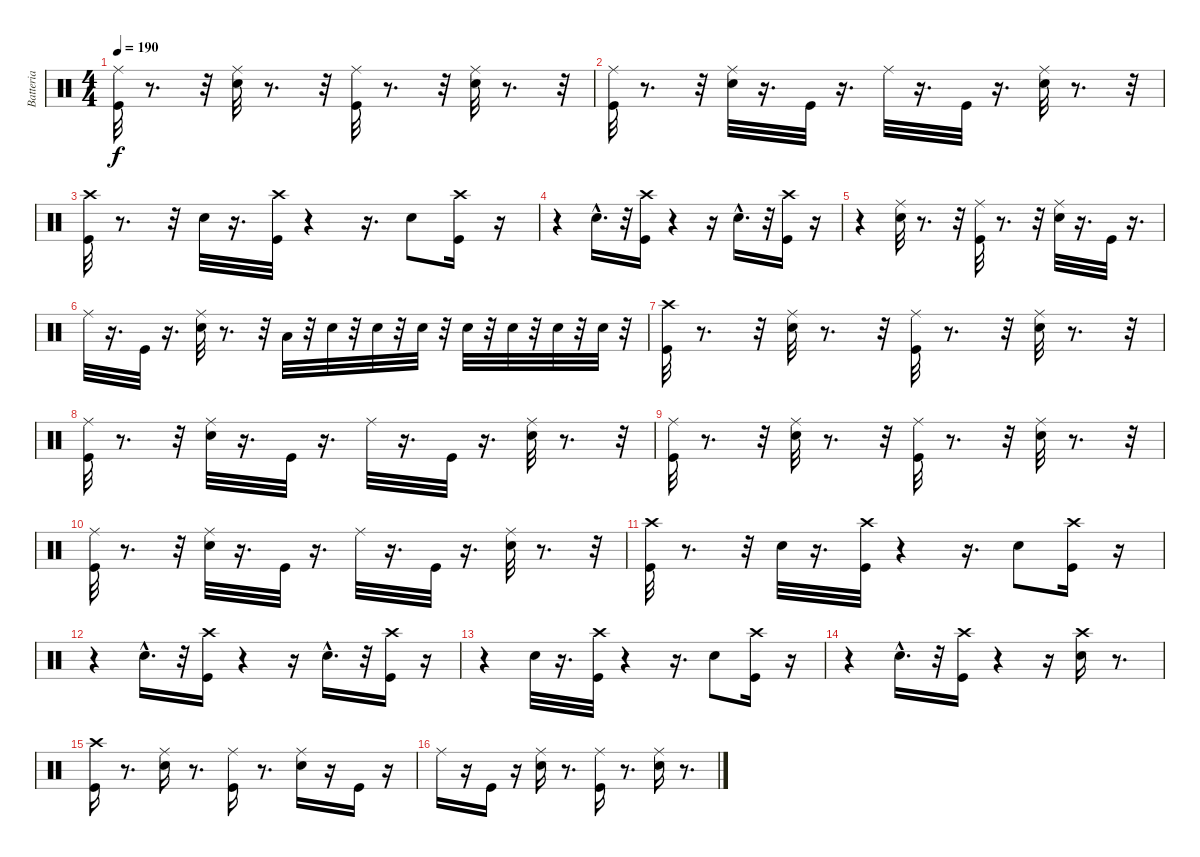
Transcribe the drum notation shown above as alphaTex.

\track ("Batteria" "Batteria") {instrument percussion}
\staff {score}
\articulation defaults
\ts (4 4)
\tempo 190
\clef neutral
\ks c
("Kick (hit)" "Ride (middle)").32{dy f} r.8{d} r.32 ("Ride (middle)" "Snare (hit) 2").32 r.8{d} r.32 ("Ride (middle)" "Kick (hit)").32 r.8{d} r.32 ("Ride (middle)" "Snare (hit) 2").32 r.8{d} r.32 |
("Ride (middle)" "Kick (hit)").32 r.8{d} r.32 ("Ride (middle)" "Snare (hit) 2").32 r.16{d} "Kick (hit)".32 r.16{d} "Ride (middle)".32 r.16{d} "Kick (hit)".32 r.16{d} ("Ride (middle)" "Snare (hit) 2").32 r.8{d} r.32 |
("Crash high (hit)" "Kick (hit)").32 r.8{d} r.32 "Snare (hit) 2".32 r.16{d} ("Kick (hit)" "Crash high (hit)").32 r.4 r.16{d} "Snare (hit) 2".8 ("Crash high (hit)" "Kick (hit)").16 r.16 |
r.4 "Snare (hit) 2"{hac}.16{d} r.32 ("Kick (hit)" "Crash high (hit)").16 r.4 r.16 "Snare (hit) 2"{hac}.16{d} r.32 ("Kick (hit)" "Crash high (hit)").16 r.16 |
r.4 ("Ride (middle)" "Snare (hit) 2").32 r.8{d} r.32 ("Ride (middle)" "Kick (hit)").32 r.8{d} r.32 ("Snare (hit) 2" "Ride (middle)").32 r.16{d} "Kick (hit)".32 r.16{d} |
"Ride (middle)".32 r.16{d} "Kick (hit)".32 r.16{d} ("Ride (middle)" "Snare (hit) 2").32 r.8{d} r.32 "Low Tom (hit)".32 r.32 "Snare (hit) 2".32 r.32 "Snare (hit) 2".32 r.32 "Snare (hit) 2".32 r.32 "Snare (hit) 2".32 r.32 "Snare (hit) 2".32 r.32 "Snare (hit) 2".32 r.32 "Snare (hit) 2".32 r.32 |
("Kick (hit)" "Crash high (hit)").32 r.8{d} r.32 ("Snare (hit) 2" "Ride (middle)").32 r.8{d} r.32 ("Kick (hit)" "Ride (middle)").32 r.8{d} r.32 ("Snare (hit) 2" "Ride (middle)").32 r.8{d} r.32 |
("Kick (hit)" "Ride (middle)").32 r.8{d} r.32 ("Snare (hit) 2" "Ride (middle)").32 r.16{d} "Kick (hit)".32 r.16{d} "Ride (middle)".32 r.16{d} "Kick (hit)".32 r.16{d} ("Snare (hit) 2" "Ride (middle)").32 r.8{d} r.32 |
("Ride (middle)" "Kick (hit)").32 r.8{d} r.32 ("Snare (hit) 2" "Ride (middle)").32 r.8{d} r.32 ("Kick (hit)" "Ride (middle)").32 r.8{d} r.32 ("Ride (middle)" "Snare (hit) 2").32 r.8{d} r.32 |
("Ride (middle)" "Kick (hit)").32 r.8{d} r.32 ("Snare (hit) 2" "Ride (middle)").32 r.16{d} "Kick (hit)".32 r.16{d} "Ride (middle)".32 r.16{d} "Kick (hit)".32 r.16{d} ("Ride (middle)" "Snare (hit) 2").32 r.8{d} r.32 |
("Kick (hit)" "Crash high (hit)").32 r.8{d} r.32 "Snare (hit) 2".32 r.16{d} ("Kick (hit)" "Crash high (hit)").32 r.4 r.16{d} "Snare (hit) 2".8 ("Kick (hit)" "Crash high (hit)").16 r.16 |
r.4 "Snare (hit) 2"{hac}.16{d} r.32 ("Crash high (hit)" "Kick (hit)").16 r.4 r.16 "Snare (hit) 2"{hac}.16{d} r.32 ("Kick (hit)" "Crash high (hit)").16 r.16 |
r.4 "Snare (hit) 2".32 r.16{d} ("Crash high (hit)" "Kick (hit)").32 r.4 r.16{d} "Snare (hit) 2".8 ("Kick (hit)" "Crash high (hit)").16 r.16 |
r.4 "Snare (hit) 2"{hac}.16{d} r.32 ("Kick (hit)" "Crash high (hit)").16 r.4 r.16 ("Snare (hit) 2" "Crash high (hit)").16 r.8{d} |
("Kick (hit)" "Crash high (hit)").16 r.8{d} ("Ride (middle)" "Snare (hit) 2").16 r.8{d} ("Ride (middle)" "Kick (hit)").16 r.8{d} ("Ride (middle)" "Snare (hit) 2").16 r.16 "Kick (hit)".16 r.16 |
"Ride (middle)".16 r.16 "Kick (hit)".16 r.16 ("Snare (hit) 2" "Ride (middle)").16 r.8{d} ("Kick (hit)" "Ride (middle)").16 r.8{d} ("Snare (hit) 2" "Ride (middle)").16 r.8{d}
